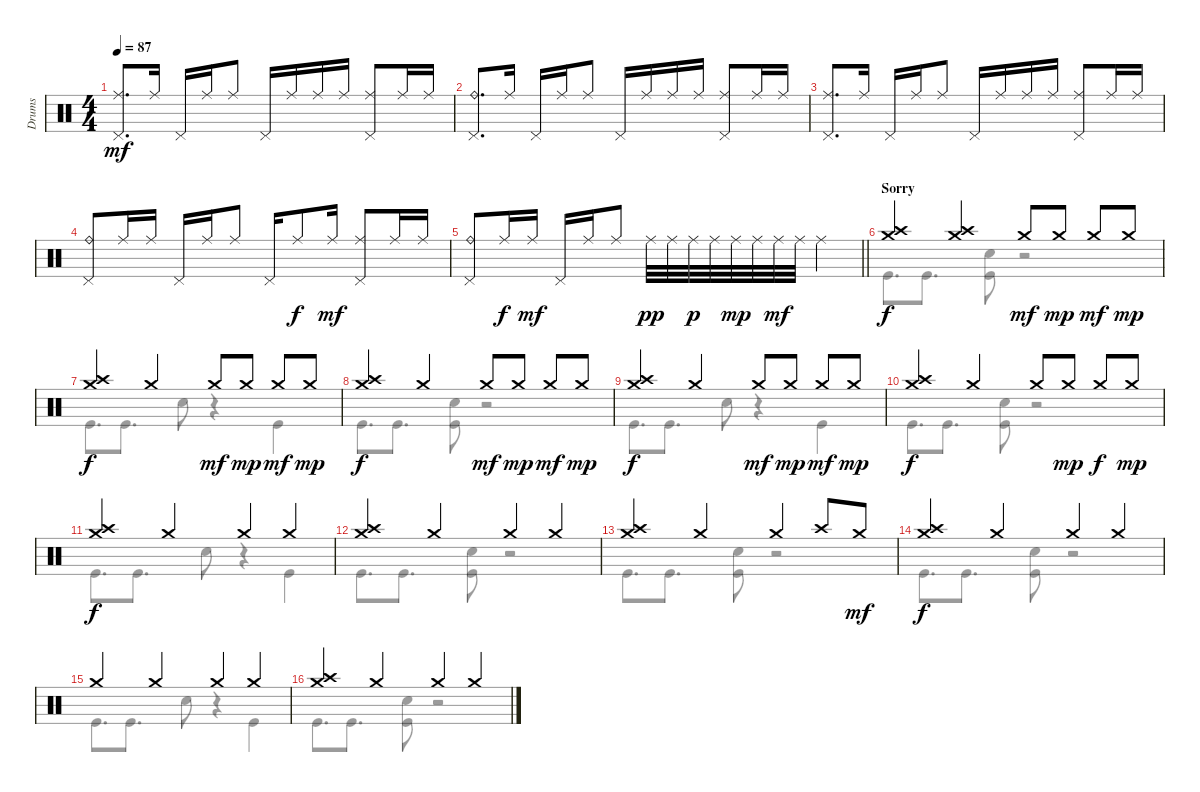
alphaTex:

\track ("Drums" "Drums") {instrument percussion}
\staff {score}
\articulation defaults
\voice
\ts (4 4)
\tempo 87
\clef neutral
\ks c
("Ride (middle)" "Pedal Hi-Hat (hit)").8{d dy mf} "Ride (middle)".16 "Pedal Hi-Hat (hit)".16 "Ride (middle)".16 "Ride (middle)".8 "Pedal Hi-Hat (hit)".16 "Ride (middle)".16 "Ride (middle)".16 "Ride (middle)".16 ("Ride (middle)" "Pedal Hi-Hat (hit)").8 "Ride (middle)".16 "Ride (middle)".16 |
("Ride (bell)" "Pedal Hi-Hat (hit)").8{d} "Ride (middle)".16 "Pedal Hi-Hat (hit)".16 "Ride (middle)".16 "Ride (middle)".8 "Pedal Hi-Hat (hit)".16 "Ride (middle)".16 "Ride (middle)".16 "Ride (middle)".16 ("Ride (middle)" "Pedal Hi-Hat (hit)").8 "Ride (middle)".16 "Ride (middle)".16 |
("Ride (middle)" "Pedal Hi-Hat (hit)").8{d} "Ride (middle)".16 "Pedal Hi-Hat (hit)".16 "Ride (middle)".16 "Ride (middle)".8 "Pedal Hi-Hat (hit)".16 "Ride (middle)".16 "Ride (middle)".16 "Ride (middle)".16 ("Ride (middle)" "Pedal Hi-Hat (hit)").8 "Ride (middle)".16 "Ride (middle)".16 |
("Ride (bell)" "Pedal Hi-Hat (hit)").8 "Ride (middle)".16 "Ride (middle)".16 "Pedal Hi-Hat (hit)".16 "Ride (middle)".16 "Ride (middle)".8 "Pedal Hi-Hat (hit)".16 "Ride (middle)".8{dy f} "Ride (middle)".16{dy mf} ("Ride (middle)" "Pedal Hi-Hat (hit)").8 "Ride (middle)".16 "Ride (middle)".16 |
\barLineRight lightlight
("Ride (bell)" "Pedal Hi-Hat (hit)").8 "Ride (middle)".16{dy f} "Ride (middle)".16{dy mf} "Pedal Hi-Hat (hit)".16 "Ride (middle)".16 "Ride (middle)".8 "Ride (middle)".32{dy pp} "Ride (middle)".32 "Ride (middle)".32{dy p} "Ride (middle)".32 "Ride (middle)".32{dy mp} "Ride (middle)".32 "Ride (middle)".32{dy mf} "Ride (middle)".32 "Ride (middle)".4 |
\section ("" "Sorry ")
("Crash medium (hit)" "Crash high (hit)").4{dy f} ("Crash medium (hit)" "Crash high (hit)").4 "Crash medium (hit)".8{dy mf} "Crash medium (hit)".8{dy mp} "Crash medium (hit)".8{dy mf} "Crash medium (hit)".8{dy mp} |
("Crash medium (hit)" "Crash high (hit)").4{dy f} "Crash medium (hit)".4 "Crash medium (hit)".8{dy mf} "Crash medium (hit)".8{dy mp} "Crash medium (hit)".8{dy mf} "Crash medium (hit)".8{dy mp} |
("Crash medium (hit)" "Crash high (hit)").4{dy f} "Crash medium (hit)".4 "Crash medium (hit)".8{dy mf} "Crash medium (hit)".8{dy mp} "Crash medium (hit)".8{dy mf} "Crash medium (hit)".8{dy mp} |
("Crash medium (hit)" "Crash high (hit)").4{dy f} "Crash medium (hit)".4 "Crash medium (hit)".8{dy mf} "Crash medium (hit)".8{dy mp} "Crash medium (hit)".8{dy mf} "Crash medium (hit)".8{dy mp} |
("Crash medium (hit)" "Crash high (hit)").4{dy f} "Crash medium (hit)".4 "Crash medium (hit)".8 "Crash medium (hit)".8{dy mp} "Crash medium (hit)".8{dy f} "Crash medium (hit)".8{dy mp} |
("Crash medium (hit)" "Crash high (hit)").4{dy f} "Crash medium (hit)".4 "Crash medium (hit)".4 "Crash medium (hit)".4 |
("Crash medium (hit)" "Crash high (hit)").4 "Crash medium (hit)".4 "Crash medium (hit)".4 "Crash medium (hit)".4 |
("Crash medium (hit)" "Crash high (hit)").4 "Crash medium (hit)".4 "Crash medium (hit)".4 "Crash high (hit)".8 "Crash medium (hit)".8{dy mf} |
("Crash medium (hit)" "Crash high (hit)").4{dy f} "Crash medium (hit)".4 "Crash medium (hit)".4 "Crash medium (hit)".4 |
"Crash medium (hit)".4 "Crash medium (hit)".4 "Crash medium (hit)".4 "Crash medium (hit)".4 |
("Crash medium (hit)" "Crash high (hit)").4 "Crash medium (hit)".4 "Crash medium (hit)".4 "Crash medium (hit)".4
\voice
\clef neutral
\ottava regular
\simile none
\ks c
|
|
|
|
\barLineRight lightlight
|
"Kick (hit)".8{d dy f} "Kick (hit)".8{d} ("Snare (hit) 2" "Kick (hit)").8 r.2 |
"Kick (hit)".8{d} "Kick (hit)".8{d} "Snare (hit) 2".8 r.4 "Kick (hit)".4 |
"Kick (hit)".8{d} "Kick (hit)".8{d} ("Snare (hit) 2" "Kick (hit)").8 r.2 |
"Kick (hit)".8{d} "Kick (hit)".8{d} "Snare (hit) 2".8 r.4 "Kick (hit)".4 |
"Kick (hit)".8{d} "Kick (hit)".8{d} ("Snare (hit) 2" "Kick (hit)").8 r.2 |
"Kick (hit)".8{d} "Kick (hit)".8{d} "Snare (hit) 2".8 r.4 "Kick (hit)".4 |
"Kick (hit)".8{d} "Kick (hit)".8{d} ("Snare (hit) 2" "Kick (hit)").8 r.2 |
"Kick (hit)".8{d} "Kick (hit)".8{d} ("Snare (hit) 2" "Kick (hit)").8 r.2 |
"Kick (hit)".8{d} "Kick (hit)".8{d} ("Snare (hit) 2" "Kick (hit)").8 r.2 |
"Kick (hit)".8{d} "Kick (hit)".8{d} "Snare (hit) 2".8 r.4 "Kick (hit)".4 |
"Kick (hit)".8{d} "Kick (hit)".8{d} ("Snare (hit) 2" "Kick (hit)").8 r.2
